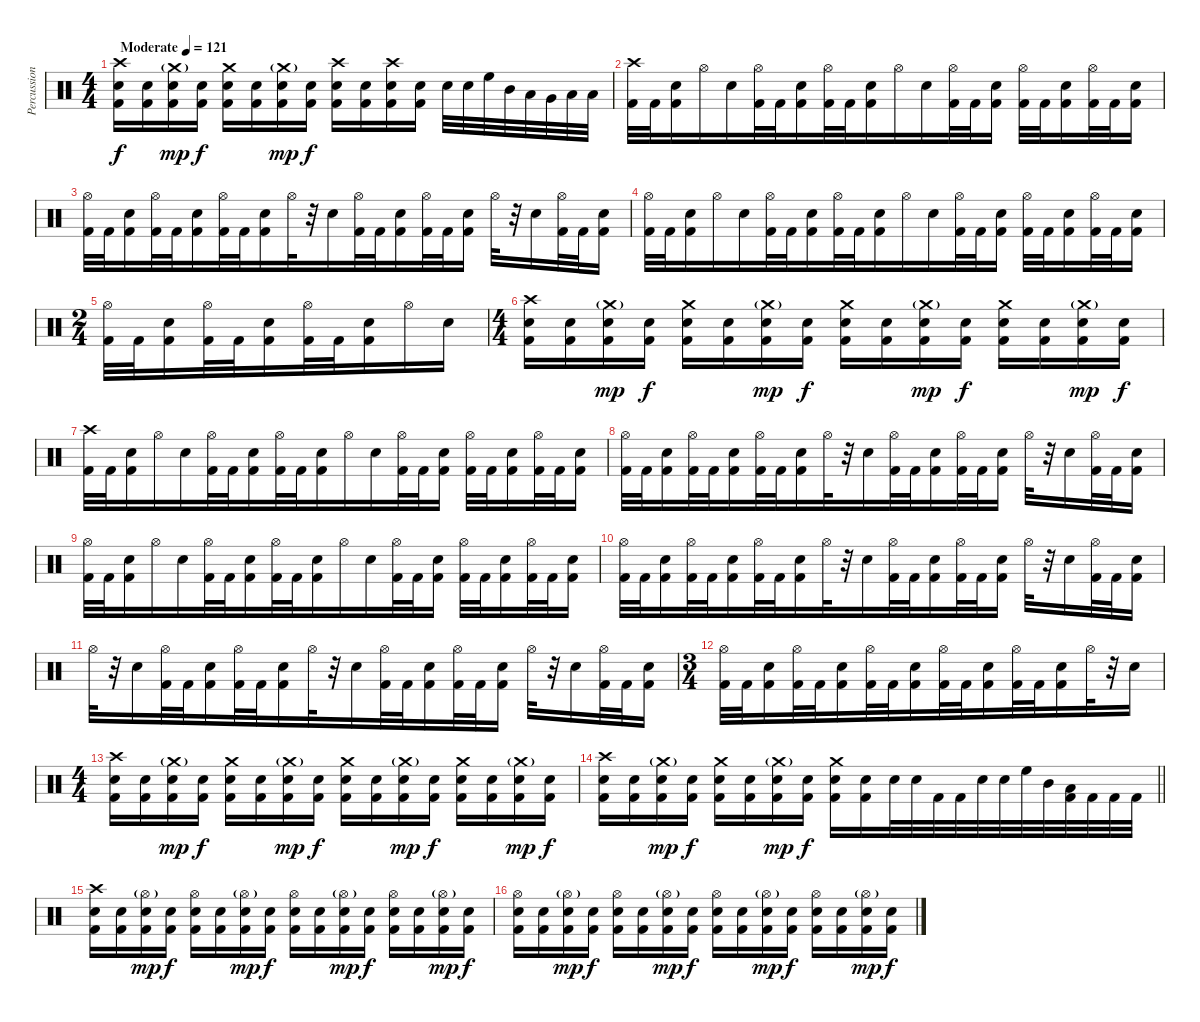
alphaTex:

\track ("Percussion" "Percussion") {instrument percussion}
\staff {score}
\articulation defaults
\ts (4 4)
\tempo (121 "Moderate")
\clef neutral
\ks c
("Crash high (hit)" "Electric Snare (hit)" "Kick (hit) 2").16{dy f} ("Electric Snare (hit)" "Kick (hit) 2").16{beam merge} ("Crash medium (hit)"{g} "Electric Snare (hit)" "Kick (hit) 2").16{dy mp beam merge} ("Electric Snare (hit)" "Kick (hit) 2").16{dy f} ("Crash medium (hit)" "Electric Snare (hit)" "Kick (hit) 2").16 ("Electric Snare (hit)" "Kick (hit) 2").16 ("Crash medium (hit)"{g} "Electric Snare (hit)" "Kick (hit) 2").16{dy mp beam merge} ("Electric Snare (hit)" "Kick (hit) 2").16{dy f} ("Crash high (hit)" "Electric Snare (hit)" "Kick (hit) 2").16 ("Electric Snare (hit)" "Kick (hit) 2").16 ("Crash high (hit)" "Electric Snare (hit)" "Kick (hit) 2").16 ("Electric Snare (hit)" "Kick (hit) 2").16 "Electric Snare (hit)".32{beam merge} "Electric Snare (hit)".32{beam merge} "High Floor Tom (hit)".32 "Mid Tom (hit)".32{beam merge} "Low Tom (hit)".32 "Very Low Tom (hit)".32{beam merge} "Low Floor Tom (hit)".32 "Low Floor Tom (hit)".32 |
("Crash high (hit)" "Kick (hit) 2").32 "Kick (hit) 2".32 ("Electric Snare (hit)" "Kick (hit) 2").16{beam merge} "Hi-Hat (open)".16{beam merge} "Electric Snare (hit)".16{beam merge} ("Hi-Hat (open)" "Kick (hit) 2").32 "Kick (hit) 2".32 ("Electric Snare (hit)" "Kick (hit) 2").16{beam merge} ("Hi-Hat (open)" "Kick (hit) 2").32 "Kick (hit) 2".32 ("Electric Snare (hit)" "Kick (hit) 2").16{beam merge} "Hi-Hat (open)".16 "Electric Snare (hit)".16 ("Hi-Hat (open)" "Kick (hit) 2").32 "Kick (hit) 2".32 ("Electric Snare (hit)" "Kick (hit) 2").16 ("Hi-Hat (open)" "Kick (hit) 2").32 "Kick (hit) 2".32{beam merge} ("Electric Snare (hit)" "Kick (hit) 2").16 ("Hi-Hat (open)" "Kick (hit) 2").32 "Kick (hit) 2".32 ("Electric Snare (hit)" "Kick (hit) 2").16 |
("Hi-Hat (open)" "Kick (hit) 2").32 "Kick (hit) 2".32 ("Electric Snare (hit)" "Kick (hit) 2").16{beam merge} ("Hi-Hat (open)" "Kick (hit) 2").32 "Kick (hit) 2".32{beam merge} ("Electric Snare (hit)" "Kick (hit) 2").16{beam merge} ("Hi-Hat (open)" "Kick (hit) 2").32 "Kick (hit) 2".32 ("Electric Snare (hit)" "Kick (hit) 2").16{beam merge} "Hi-Hat (open)".32 r.32 "Electric Snare (hit)".16{beam merge} ("Hi-Hat (open)" "Kick (hit) 2").32 "Kick (hit) 2".32 ("Electric Snare (hit)" "Kick (hit) 2").16 ("Hi-Hat (open)" "Kick (hit) 2").32 "Kick (hit) 2".32 ("Electric Snare (hit)" "Kick (hit) 2").16 "Hi-Hat (open)".32 r.32{beam merge} "Electric Snare (hit)".16 ("Hi-Hat (open)" "Kick (hit) 2").32 "Kick (hit) 2".32 ("Electric Snare (hit)" "Kick (hit) 2").16 |
("Hi-Hat (open)" "Kick (hit) 2").32 "Kick (hit) 2".32 ("Electric Snare (hit)" "Kick (hit) 2").16{beam merge} "Hi-Hat (open)".16{beam merge} "Electric Snare (hit)".16{beam merge} ("Hi-Hat (open)" "Kick (hit) 2").32 "Kick (hit) 2".32 ("Electric Snare (hit)" "Kick (hit) 2").16{beam merge} ("Hi-Hat (open)" "Kick (hit) 2").32 "Kick (hit) 2".32 ("Electric Snare (hit)" "Kick (hit) 2").16{beam merge} "Hi-Hat (open)".16 "Electric Snare (hit)".16 ("Hi-Hat (open)" "Kick (hit) 2").32 "Kick (hit) 2".32 ("Electric Snare (hit)" "Kick (hit) 2").16 ("Hi-Hat (open)" "Kick (hit) 2").32 "Kick (hit) 2".32{beam merge} ("Electric Snare (hit)" "Kick (hit) 2").16 ("Hi-Hat (open)" "Kick (hit) 2").32 "Kick (hit) 2".32 ("Electric Snare (hit)" "Kick (hit) 2").16 |
\ts (2 4)
("Hi-Hat (open)" "Kick (hit) 2").32 "Kick (hit) 2".32 ("Electric Snare (hit)" "Kick (hit) 2").16{beam merge} ("Hi-Hat (open)" "Kick (hit) 2").32 "Kick (hit) 2".32{beam merge} ("Electric Snare (hit)" "Kick (hit) 2").16{beam merge} ("Hi-Hat (open)" "Kick (hit) 2").32 "Kick (hit) 2".32 ("Electric Snare (hit)" "Kick (hit) 2").16{beam merge} "Hi-Hat (open)".16 "Electric Snare (hit)".16 |
\ts (4 4)
("Crash high (hit)" "Electric Snare (hit)" "Kick (hit) 2").16 ("Electric Snare (hit)" "Kick (hit) 2").16{beam merge} ("Crash medium (hit)"{g} "Electric Snare (hit)" "Kick (hit) 2").16{dy mp beam merge} ("Electric Snare (hit)" "Kick (hit) 2").16{dy f} ("Crash medium (hit)" "Electric Snare (hit)" "Kick (hit) 2").16 ("Electric Snare (hit)" "Kick (hit) 2").16 ("Crash medium (hit)"{g} "Electric Snare (hit)" "Kick (hit) 2").16{dy mp beam merge} ("Electric Snare (hit)" "Kick (hit) 2").16{dy f} ("Crash medium (hit)" "Electric Snare (hit)" "Kick (hit) 2").16 ("Electric Snare (hit)" "Kick (hit) 2").16{beam merge} ("Crash medium (hit)"{g} "Electric Snare (hit)" "Kick (hit) 2").16{dy mp beam merge} ("Electric Snare (hit)" "Kick (hit) 2").16{dy f} ("Crash medium (hit)" "Electric Snare (hit)" "Kick (hit) 2").16 ("Electric Snare (hit)" "Kick (hit) 2").16 ("Crash medium (hit)"{g} "Electric Snare (hit)" "Kick (hit) 2").16{dy mp beam merge} ("Electric Snare (hit)" "Kick (hit) 2").16{dy f} |
("Crash high (hit)" "Kick (hit) 2").32 "Kick (hit) 2".32 ("Electric Snare (hit)" "Kick (hit) 2").16{beam merge} "Hi-Hat (open)".16{beam merge} "Electric Snare (hit)".16{beam merge} ("Hi-Hat (open)" "Kick (hit) 2").32 "Kick (hit) 2".32 ("Electric Snare (hit)" "Kick (hit) 2").16{beam merge} ("Hi-Hat (open)" "Kick (hit) 2").32 "Kick (hit) 2".32 ("Electric Snare (hit)" "Kick (hit) 2").16{beam merge} "Hi-Hat (open)".16 "Electric Snare (hit)".16 ("Hi-Hat (open)" "Kick (hit) 2").32 "Kick (hit) 2".32 ("Electric Snare (hit)" "Kick (hit) 2").16 ("Hi-Hat (open)" "Kick (hit) 2").32 "Kick (hit) 2".32{beam merge} ("Electric Snare (hit)" "Kick (hit) 2").16 ("Hi-Hat (open)" "Kick (hit) 2").32 "Kick (hit) 2".32 ("Electric Snare (hit)" "Kick (hit) 2").16 |
("Hi-Hat (open)" "Kick (hit) 2").32 "Kick (hit) 2".32 ("Electric Snare (hit)" "Kick (hit) 2").16{beam merge} ("Hi-Hat (open)" "Kick (hit) 2").32 "Kick (hit) 2".32{beam merge} ("Electric Snare (hit)" "Kick (hit) 2").16{beam merge} ("Hi-Hat (open)" "Kick (hit) 2").32 "Kick (hit) 2".32 ("Electric Snare (hit)" "Kick (hit) 2").16{beam merge} "Hi-Hat (open)".32 r.32 "Electric Snare (hit)".16{beam merge} ("Hi-Hat (open)" "Kick (hit) 2").32 "Kick (hit) 2".32 ("Electric Snare (hit)" "Kick (hit) 2").16 ("Hi-Hat (open)" "Kick (hit) 2").32 "Kick (hit) 2".32 ("Electric Snare (hit)" "Kick (hit) 2").16 "Hi-Hat (open)".32 r.32{beam merge} "Electric Snare (hit)".16 ("Hi-Hat (open)" "Kick (hit) 2").32 "Kick (hit) 2".32 ("Electric Snare (hit)" "Kick (hit) 2").16 |
("Hi-Hat (open)" "Kick (hit) 2").32 "Kick (hit) 2".32 ("Electric Snare (hit)" "Kick (hit) 2").16{beam merge} "Hi-Hat (open)".16{beam merge} "Electric Snare (hit)".16{beam merge} ("Hi-Hat (open)" "Kick (hit) 2").32 "Kick (hit) 2".32 ("Electric Snare (hit)" "Kick (hit) 2").16{beam merge} ("Hi-Hat (open)" "Kick (hit) 2").32 "Kick (hit) 2".32 ("Electric Snare (hit)" "Kick (hit) 2").16{beam merge} "Hi-Hat (open)".16 "Electric Snare (hit)".16 ("Hi-Hat (open)" "Kick (hit) 2").32 "Kick (hit) 2".32 ("Electric Snare (hit)" "Kick (hit) 2").16 ("Hi-Hat (open)" "Kick (hit) 2").32 "Kick (hit) 2".32{beam merge} ("Electric Snare (hit)" "Kick (hit) 2").16 ("Hi-Hat (open)" "Kick (hit) 2").32 "Kick (hit) 2".32 ("Electric Snare (hit)" "Kick (hit) 2").16 |
("Hi-Hat (open)" "Kick (hit) 2").32 "Kick (hit) 2".32 ("Electric Snare (hit)" "Kick (hit) 2").16{beam merge} ("Hi-Hat (open)" "Kick (hit) 2").32 "Kick (hit) 2".32{beam merge} ("Electric Snare (hit)" "Kick (hit) 2").16{beam merge} ("Hi-Hat (open)" "Kick (hit) 2").32 "Kick (hit) 2".32 ("Electric Snare (hit)" "Kick (hit) 2").16{beam merge} "Hi-Hat (open)".32 r.32 "Electric Snare (hit)".16{beam merge} ("Hi-Hat (open)" "Kick (hit) 2").32 "Kick (hit) 2".32 ("Electric Snare (hit)" "Kick (hit) 2").16 ("Hi-Hat (open)" "Kick (hit) 2").32 "Kick (hit) 2".32 ("Electric Snare (hit)" "Kick (hit) 2").16 "Hi-Hat (open)".32 r.32{beam merge} "Electric Snare (hit)".16 ("Hi-Hat (open)" "Kick (hit) 2").32 "Kick (hit) 2".32 ("Electric Snare (hit)" "Kick (hit) 2").16 |
"Hi-Hat (open)".32 r.32 "Electric Snare (hit)".16{beam merge} ("Hi-Hat (open)" "Kick (hit) 2").32 "Kick (hit) 2".32{beam merge} ("Electric Snare (hit)" "Kick (hit) 2").16{beam merge} ("Hi-Hat (open)" "Kick (hit) 2").32 "Kick (hit) 2".32 ("Electric Snare (hit)" "Kick (hit) 2").16{beam merge} "Hi-Hat (open)".32 r.32 "Electric Snare (hit)".16{beam merge} ("Hi-Hat (open)" "Kick (hit) 2").32 "Kick (hit) 2".32 ("Electric Snare (hit)" "Kick (hit) 2").16 ("Hi-Hat (open)" "Kick (hit) 2").32 "Kick (hit) 2".32 ("Electric Snare (hit)" "Kick (hit) 2").16 "Hi-Hat (open)".32 r.32{beam merge} "Electric Snare (hit)".16 ("Hi-Hat (open)" "Kick (hit) 2").32 "Kick (hit) 2".32 ("Electric Snare (hit)" "Kick (hit) 2").16 |
\ts (3 4)
("Hi-Hat (open)" "Kick (hit) 2").32 "Kick (hit) 2".32 ("Electric Snare (hit)" "Kick (hit) 2").16{beam merge} ("Hi-Hat (open)" "Kick (hit) 2").32 "Kick (hit) 2".32{beam merge} ("Electric Snare (hit)" "Kick (hit) 2").16{beam merge} ("Hi-Hat (open)" "Kick (hit) 2").32 "Kick (hit) 2".32 ("Electric Snare (hit)" "Kick (hit) 2").16{beam merge} ("Hi-Hat (open)" "Kick (hit) 2").32 "Kick (hit) 2".32 ("Electric Snare (hit)" "Kick (hit) 2").16{beam merge} ("Hi-Hat (open)" "Kick (hit) 2").32 "Kick (hit) 2".32 ("Electric Snare (hit)" "Kick (hit) 2").16{beam merge} "Hi-Hat (open)".32 r.32 "Electric Snare (hit)".16 |
\ts (4 4)
("Crash high (hit)" "Electric Snare (hit)" "Kick (hit) 2").16 ("Electric Snare (hit)" "Kick (hit) 2").16{beam merge} ("Crash medium (hit)"{g} "Electric Snare (hit)" "Kick (hit) 2").16{dy mp beam merge} ("Electric Snare (hit)" "Kick (hit) 2").16{dy f} ("Crash medium (hit)" "Electric Snare (hit)" "Kick (hit) 2").16 ("Electric Snare (hit)" "Kick (hit) 2").16 ("Crash medium (hit)"{g} "Electric Snare (hit)" "Kick (hit) 2").16{dy mp beam merge} ("Electric Snare (hit)" "Kick (hit) 2").16{dy f} ("Crash medium (hit)" "Electric Snare (hit)" "Kick (hit) 2").16 ("Electric Snare (hit)" "Kick (hit) 2").16{beam merge} ("Crash medium (hit)"{g} "Electric Snare (hit)" "Kick (hit) 2").16{dy mp beam merge} ("Electric Snare (hit)" "Kick (hit) 2").16{dy f} ("Crash medium (hit)" "Electric Snare (hit)" "Kick (hit) 2").16 ("Electric Snare (hit)" "Kick (hit) 2").16 ("Crash medium (hit)"{g} "Electric Snare (hit)" "Kick (hit) 2").16{dy mp beam merge} ("Electric Snare (hit)" "Kick (hit) 2").16{dy f} |
\barLineRight lightlight
("Crash high (hit)" "Electric Snare (hit)" "Kick (hit) 2").16 ("Electric Snare (hit)" "Kick (hit) 2").16{beam merge} ("Crash medium (hit)"{g} "Electric Snare (hit)" "Kick (hit) 2").16{dy mp beam merge} ("Electric Snare (hit)" "Kick (hit) 2").16{dy f} ("Crash medium (hit)" "Electric Snare (hit)" "Kick (hit) 2").16 ("Electric Snare (hit)" "Kick (hit) 2").16 ("Crash medium (hit)"{g} "Electric Snare (hit)" "Kick (hit) 2").16{dy mp beam merge} ("Electric Snare (hit)" "Kick (hit) 2").16{dy f} ("Crash medium (hit)" "Electric Snare (hit)" "Kick (hit) 2").16 ("Electric Snare (hit)" "Kick (hit) 2").16{beam merge} "Electric Snare (hit)".32{beam merge} "Electric Snare (hit)".32{beam merge} "Kick (hit) 2".32 "Kick (hit) 2".32{beam merge} "Electric Snare (hit)".32 "Electric Snare (hit)".32 "High Floor Tom (hit)".32{beam merge} "Mid Tom (hit)".32{beam merge} ("Low Floor Tom (hit)" "Kick (hit) 2").32 "Kick (hit) 2".32{beam merge} "Kick (hit) 2".32 "Kick (hit) 2".32 |
\section ("" "")
("Crash high (hit)" "Electric Snare (hit)" "Kick (hit) 2").16 ("Electric Snare (hit)" "Kick (hit) 2").16{beam merge} ("Hi-Hat (open)"{g} "Electric Snare (hit)" "Kick (hit) 2").16{dy mp beam merge} ("Electric Snare (hit)" "Kick (hit) 2").16{dy f} ("Hi-Hat (open)" "Electric Snare (hit)" "Kick (hit) 2").16 ("Electric Snare (hit)" "Kick (hit) 2").16 ("Hi-Hat (open)"{g} "Electric Snare (hit)" "Kick (hit) 2").16{dy mp beam merge} ("Electric Snare (hit)" "Kick (hit) 2").16{dy f} ("Hi-Hat (open)" "Electric Snare (hit)" "Kick (hit) 2").16 ("Electric Snare (hit)" "Kick (hit) 2").16{beam merge} ("Hi-Hat (open)"{g} "Electric Snare (hit)" "Kick (hit) 2").16{dy mp beam merge} ("Electric Snare (hit)" "Kick (hit) 2").16{dy f} ("Hi-Hat (open)" "Electric Snare (hit)" "Kick (hit) 2").16 ("Electric Snare (hit)" "Kick (hit) 2").16 ("Hi-Hat (open)"{g} "Electric Snare (hit)" "Kick (hit) 2").16{dy mp beam merge} ("Electric Snare (hit)" "Kick (hit) 2").16{dy f} |
("Hi-Hat (open)" "Electric Snare (hit)" "Kick (hit) 2").16 ("Electric Snare (hit)" "Kick (hit) 2").16{beam merge} ("Hi-Hat (open)"{g} "Electric Snare (hit)" "Kick (hit) 2").16{dy mp beam merge} ("Electric Snare (hit)" "Kick (hit) 2").16{dy f} ("Hi-Hat (open)" "Electric Snare (hit)" "Kick (hit) 2").16 ("Electric Snare (hit)" "Kick (hit) 2").16 ("Hi-Hat (open)"{g} "Electric Snare (hit)" "Kick (hit) 2").16{dy mp beam merge} ("Electric Snare (hit)" "Kick (hit) 2").16{dy f} ("Hi-Hat (open)" "Electric Snare (hit)" "Kick (hit) 2").16 ("Electric Snare (hit)" "Kick (hit) 2").16{beam merge} ("Hi-Hat (open)"{g} "Electric Snare (hit)" "Kick (hit) 2").16{dy mp beam merge} ("Electric Snare (hit)" "Kick (hit) 2").16{dy f} ("Hi-Hat (open)" "Electric Snare (hit)" "Kick (hit) 2").16 ("Electric Snare (hit)" "Kick (hit) 2").16 ("Hi-Hat (open)"{g} "Electric Snare (hit)" "Kick (hit) 2").16{dy mp beam merge} ("Electric Snare (hit)" "Kick (hit) 2").16{dy f}
